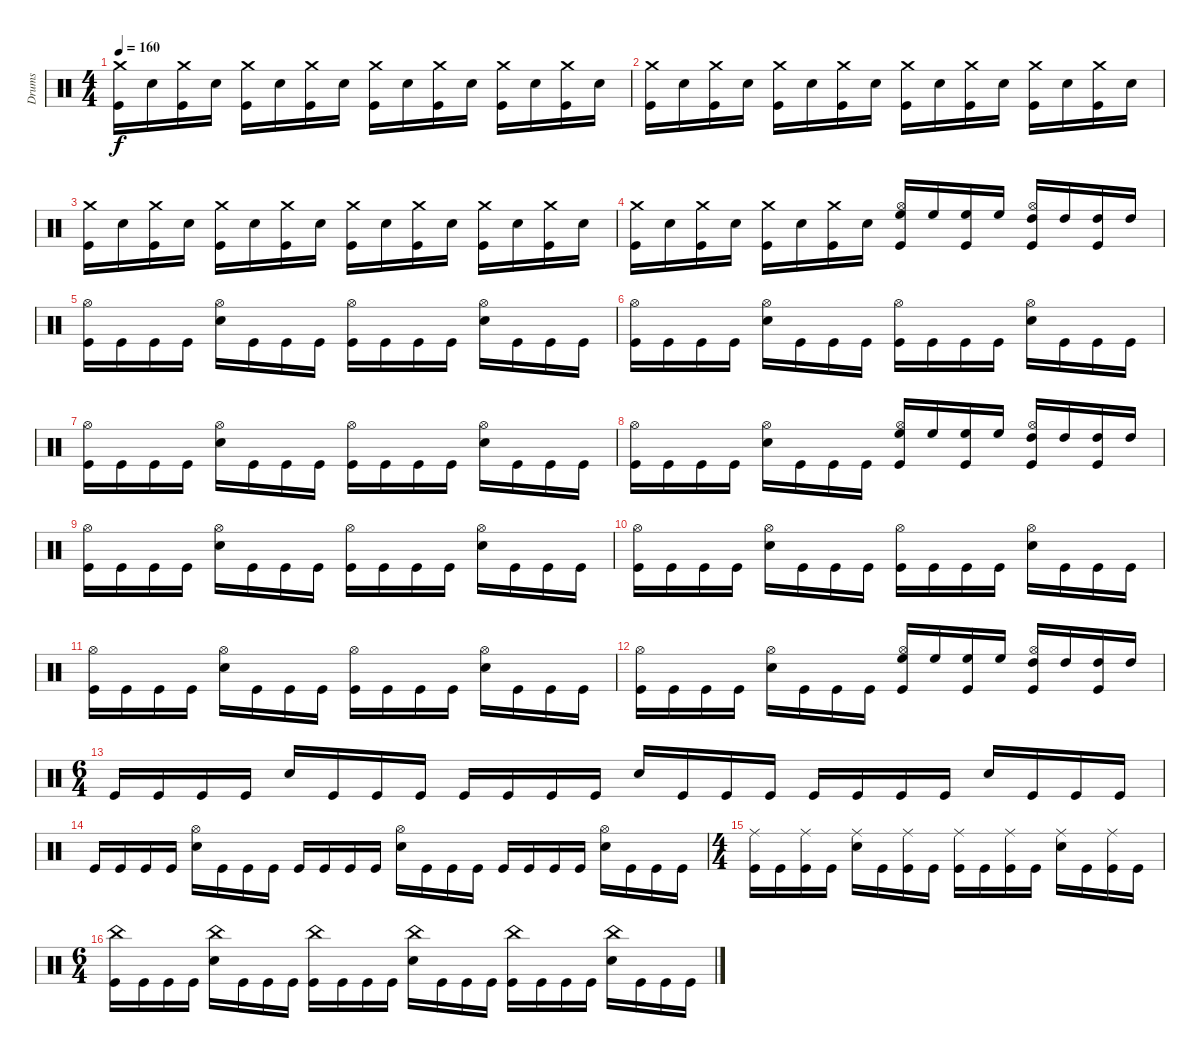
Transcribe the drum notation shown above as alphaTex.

\track ("Drums" "Drums") {instrument percussion}
\staff {score}
\articulation defaults
\ts (4 4)
\tempo 160
\clef neutral
\ks c
("Crash medium (hit)" "Kick (hit)").16{dy f} "Electric Snare (hit)".16 ("Crash medium (hit)" "Kick (hit)").16 "Electric Snare (hit)".16 ("Crash medium (hit)" "Kick (hit)").16 "Electric Snare (hit)".16 ("Crash medium (hit)" "Kick (hit)").16 "Electric Snare (hit)".16 ("Crash medium (hit)" "Kick (hit)").16 "Electric Snare (hit)".16 ("Crash medium (hit)" "Kick (hit)").16 "Electric Snare (hit)".16 ("Crash medium (hit)" "Kick (hit)").16 "Electric Snare (hit)".16 ("Crash medium (hit)" "Kick (hit)").16 "Electric Snare (hit)".16 |
("Crash medium (hit)" "Kick (hit)").16 "Electric Snare (hit)".16 ("Crash medium (hit)" "Kick (hit)").16 "Electric Snare (hit)".16 ("Crash medium (hit)" "Kick (hit)").16 "Electric Snare (hit)".16 ("Crash medium (hit)" "Kick (hit)").16 "Electric Snare (hit)".16 ("Crash medium (hit)" "Kick (hit)").16 "Electric Snare (hit)".16 ("Crash medium (hit)" "Kick (hit)").16 "Electric Snare (hit)".16 ("Crash medium (hit)" "Kick (hit)").16 "Electric Snare (hit)".16 ("Crash medium (hit)" "Kick (hit)").16 "Electric Snare (hit)".16 |
("Crash medium (hit)" "Kick (hit)").16 "Electric Snare (hit)".16 ("Crash medium (hit)" "Kick (hit)").16 "Electric Snare (hit)".16 ("Crash medium (hit)" "Kick (hit)").16 "Electric Snare (hit)".16 ("Crash medium (hit)" "Kick (hit)").16 "Electric Snare (hit)".16 ("Crash medium (hit)" "Kick (hit)").16 "Electric Snare (hit)".16 ("Crash medium (hit)" "Kick (hit)").16 "Electric Snare (hit)".16 ("Crash medium (hit)" "Kick (hit)").16 "Electric Snare (hit)".16 ("Crash medium (hit)" "Kick (hit)").16 "Electric Snare (hit)".16 |
("Crash medium (hit)" "Kick (hit)").16 "Electric Snare (hit)".16 ("Crash medium (hit)" "Kick (hit)").16 "Electric Snare (hit)".16 ("Crash medium (hit)" "Kick (hit)").16 "Electric Snare (hit)".16 ("Crash medium (hit)" "Kick (hit)").16 "Electric Snare (hit)".16 ("Hi-Hat (open)" "High Floor Tom (hit)" "Kick (hit)").16 "High Floor Tom (hit)".16 ("High Floor Tom (hit)" "Kick (hit)").16 "High Floor Tom (hit)".16 ("Hi-Hat (open)" "High Tom (hit)" "Kick (hit)").16 "High Tom (hit)".16 ("High Tom (hit)" "Kick (hit)").16 "High Tom (hit)".16 |
("Hi-Hat (open)" "Kick (hit)").16 "Kick (hit)".16 "Kick (hit)".16 "Kick (hit)".16 ("Hi-Hat (open)" "Snare (hit) 2").16 "Kick (hit)".16 "Kick (hit)".16 "Kick (hit)".16 ("Hi-Hat (open)" "Kick (hit)").16 "Kick (hit)".16 "Kick (hit)".16 "Kick (hit)".16 ("Hi-Hat (open)" "Snare (hit) 2").16 "Kick (hit)".16 "Kick (hit)".16 "Kick (hit)".16 |
("Hi-Hat (open)" "Kick (hit)").16 "Kick (hit)".16 "Kick (hit)".16 "Kick (hit)".16 ("Hi-Hat (open)" "Snare (hit) 2").16 "Kick (hit)".16 "Kick (hit)".16 "Kick (hit)".16 ("Hi-Hat (open)" "Kick (hit)").16 "Kick (hit)".16 "Kick (hit)".16 "Kick (hit)".16 ("Hi-Hat (open)" "Snare (hit) 2").16 "Kick (hit)".16 "Kick (hit)".16 "Kick (hit)".16 |
("Hi-Hat (open)" "Kick (hit)").16 "Kick (hit)".16 "Kick (hit)".16 "Kick (hit)".16 ("Hi-Hat (open)" "Snare (hit) 2").16 "Kick (hit)".16 "Kick (hit)".16 "Kick (hit)".16 ("Hi-Hat (open)" "Kick (hit)").16 "Kick (hit)".16 "Kick (hit)".16 "Kick (hit)".16 ("Hi-Hat (open)" "Snare (hit) 2").16 "Kick (hit)".16 "Kick (hit)".16 "Kick (hit)".16 |
("Hi-Hat (open)" "Kick (hit)").16 "Kick (hit)".16 "Kick (hit)".16 "Kick (hit)".16 ("Hi-Hat (open)" "Snare (hit) 2").16 "Kick (hit)".16 "Kick (hit)".16 "Kick (hit)".16 ("Hi-Hat (open)" "High Floor Tom (hit)" "Kick (hit)").16 "High Floor Tom (hit)".16 ("High Floor Tom (hit)" "Kick (hit)").16 "High Floor Tom (hit)".16 ("Hi-Hat (open)" "High Tom (hit)" "Kick (hit)").16 "High Tom (hit)".16 ("High Tom (hit)" "Kick (hit)").16 "High Tom (hit)".16 |
("Hi-Hat (open)" "Kick (hit)").16 "Kick (hit)".16 "Kick (hit)".16 "Kick (hit)".16 ("Hi-Hat (open)" "Snare (hit) 2").16 "Kick (hit)".16 "Kick (hit)".16 "Kick (hit)".16 ("Hi-Hat (open)" "Kick (hit)").16 "Kick (hit)".16 "Kick (hit)".16 "Kick (hit)".16 ("Hi-Hat (open)" "Snare (hit) 2").16 "Kick (hit)".16 "Kick (hit)".16 "Kick (hit)".16 |
("Hi-Hat (open)" "Kick (hit)").16 "Kick (hit)".16 "Kick (hit)".16 "Kick (hit)".16 ("Hi-Hat (open)" "Snare (hit) 2").16 "Kick (hit)".16 "Kick (hit)".16 "Kick (hit)".16 ("Hi-Hat (open)" "Kick (hit)").16 "Kick (hit)".16 "Kick (hit)".16 "Kick (hit)".16 ("Hi-Hat (open)" "Snare (hit) 2").16 "Kick (hit)".16 "Kick (hit)".16 "Kick (hit)".16 |
("Hi-Hat (open)" "Kick (hit)").16 "Kick (hit)".16 "Kick (hit)".16 "Kick (hit)".16 ("Hi-Hat (open)" "Snare (hit) 2").16 "Kick (hit)".16 "Kick (hit)".16 "Kick (hit)".16 ("Hi-Hat (open)" "Kick (hit)").16 "Kick (hit)".16 "Kick (hit)".16 "Kick (hit)".16 ("Hi-Hat (open)" "Snare (hit) 2").16 "Kick (hit)".16 "Kick (hit)".16 "Kick (hit)".16 |
("Hi-Hat (open)" "Kick (hit)").16 "Kick (hit)".16 "Kick (hit)".16 "Kick (hit)".16 ("Hi-Hat (open)" "Snare (hit) 2").16 "Kick (hit)".16 "Kick (hit)".16 "Kick (hit)".16 ("Hi-Hat (open)" "High Floor Tom (hit)" "Kick (hit)").16 "High Floor Tom (hit)".16 ("High Floor Tom (hit)" "Kick (hit)").16 "High Floor Tom (hit)".16 ("Hi-Hat (open)" "High Tom (hit)" "Kick (hit)").16 "High Tom (hit)".16 ("High Tom (hit)" "Kick (hit)").16 "High Tom (hit)".16 |
\ts (6 4)
"Kick (hit)".16 "Kick (hit)".16 "Kick (hit)".16 "Kick (hit)".16 "Snare (hit) 2".16 "Kick (hit)".16 "Kick (hit)".16 "Kick (hit)".16 "Kick (hit)".16 "Kick (hit)".16 "Kick (hit)".16 "Kick (hit)".16 "Snare (hit) 2".16 "Kick (hit)".16 "Kick (hit)".16 "Kick (hit)".16 "Kick (hit)".16 "Kick (hit)".16 "Kick (hit)".16 "Kick (hit)".16 "Snare (hit) 2".16 "Kick (hit)".16 "Kick (hit)".16 "Kick (hit)".16 |
"Kick (hit)".16 "Kick (hit)".16 "Kick (hit)".16 "Kick (hit)".16 ("Hi-Hat (open)" "Snare (hit) 2").16 "Kick (hit)".16 "Kick (hit)".16 "Kick (hit)".16 "Kick (hit)".16 "Kick (hit)".16 "Kick (hit)".16 "Kick (hit)".16 ("Hi-Hat (open)" "Snare (hit) 2").16 "Kick (hit)".16 "Kick (hit)".16 "Kick (hit)".16 "Kick (hit)".16 "Kick (hit)".16 "Kick (hit)".16 "Kick (hit)".16 ("Hi-Hat (open)" "Snare (hit) 2").16 "Kick (hit)".16 "Kick (hit)".16 "Kick (hit)".16 |
\ts (4 4)
("Ride (middle)" "Kick (hit)").16 "Kick (hit)".16 ("Ride (middle)" "Kick (hit)").16 "Kick (hit)".16 ("Ride (middle)" "Snare (hit) 2").16 "Kick (hit)".16 ("Ride (middle)" "Kick (hit)").16 "Kick (hit)".16 ("Ride (middle)" "Kick (hit)").16 "Kick (hit)".16 ("Ride (middle)" "Kick (hit)").16 "Kick (hit)".16 ("Ride (middle)" "Snare (hit) 2").16 "Kick (hit)".16 ("Ride (middle)" "Kick (hit)").16 "Kick (hit)".16 |
\ts (6 4)
("China (hit)" "Kick (hit)").16 "Kick (hit)".16 "Kick (hit)".16 "Kick (hit)".16 ("China (hit)" "Snare (hit) 2").16 "Kick (hit)".16 "Kick (hit)".16 "Kick (hit)".16 ("China (hit)" "Kick (hit)").16 "Kick (hit)".16 "Kick (hit)".16 "Kick (hit)".16 ("China (hit)" "Snare (hit) 2").16 "Kick (hit)".16 "Kick (hit)".16 "Kick (hit)".16 ("China (hit)" "Kick (hit)").16 "Kick (hit)".16 "Kick (hit)".16 "Kick (hit)".16 ("China (hit)" "Snare (hit) 2").16 "Kick (hit)".16 "Kick (hit)".16 "Kick (hit)".16
